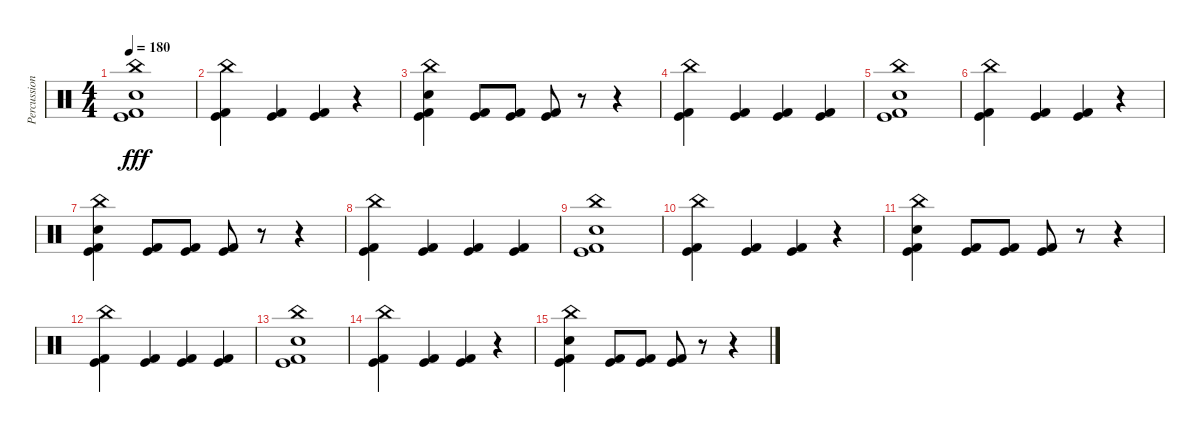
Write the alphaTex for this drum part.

\track ("Percussion" "Percussion") {instrument percussion}
\staff {score}
\articulation defaults
\ts (4 4)
\tempo 180
\clef neutral
\ks c
("China (hit)" "Snare (hit) 2" "Kick (hit)" "Kick (hit) 2").1{dy fff} |
("China (hit)" "Kick (hit) 2" "Kick (hit)").4 ("Kick (hit) 2" "Kick (hit)").4 ("Kick (hit) 2" "Kick (hit)").4 r.4 |
("China (hit)" "Snare (hit) 2" "Kick (hit) 2" "Kick (hit)").4 ("Kick (hit) 2" "Kick (hit)").8 ("Kick (hit) 2" "Kick (hit)").8 ("Kick (hit) 2" "Kick (hit)").8 r.8 r.4 |
("China (hit)" "Kick (hit)" "Kick (hit) 2").4 ("Kick (hit)" "Kick (hit) 2").4 ("Kick (hit)" "Kick (hit) 2").4 ("Kick (hit)" "Kick (hit) 2").4 |
("China (hit)" "Snare (hit) 2" "Kick (hit)" "Kick (hit) 2").1 |
("China (hit)" "Kick (hit) 2" "Kick (hit)").4 ("Kick (hit) 2" "Kick (hit)").4 ("Kick (hit) 2" "Kick (hit)").4 r.4 |
("China (hit)" "Snare (hit) 2" "Kick (hit) 2" "Kick (hit)").4 ("Kick (hit) 2" "Kick (hit)").8 ("Kick (hit) 2" "Kick (hit)").8 ("Kick (hit) 2" "Kick (hit)").8 r.8 r.4 |
("China (hit)" "Kick (hit)" "Kick (hit) 2").4 ("Kick (hit)" "Kick (hit) 2").4 ("Kick (hit)" "Kick (hit) 2").4 ("Kick (hit)" "Kick (hit) 2").4 |
("China (hit)" "Snare (hit) 2" "Kick (hit)" "Kick (hit) 2").1 |
("China (hit)" "Kick (hit) 2" "Kick (hit)").4 ("Kick (hit) 2" "Kick (hit)").4 ("Kick (hit) 2" "Kick (hit)").4 r.4 |
("China (hit)" "Snare (hit) 2" "Kick (hit) 2" "Kick (hit)").4 ("Kick (hit) 2" "Kick (hit)").8 ("Kick (hit) 2" "Kick (hit)").8 ("Kick (hit) 2" "Kick (hit)").8 r.8 r.4 |
("China (hit)" "Kick (hit)" "Kick (hit) 2").4 ("Kick (hit)" "Kick (hit) 2").4 ("Kick (hit)" "Kick (hit) 2").4 ("Kick (hit)" "Kick (hit) 2").4 |
("China (hit)" "Snare (hit) 2" "Kick (hit)" "Kick (hit) 2").1 |
("China (hit)" "Kick (hit) 2" "Kick (hit)").4 ("Kick (hit) 2" "Kick (hit)").4 ("Kick (hit) 2" "Kick (hit)").4 r.4 |
("China (hit)" "Snare (hit) 2" "Kick (hit) 2" "Kick (hit)").4 ("Kick (hit) 2" "Kick (hit)").8 ("Kick (hit) 2" "Kick (hit)").8 ("Kick (hit) 2" "Kick (hit)").8 r.8 r.4
